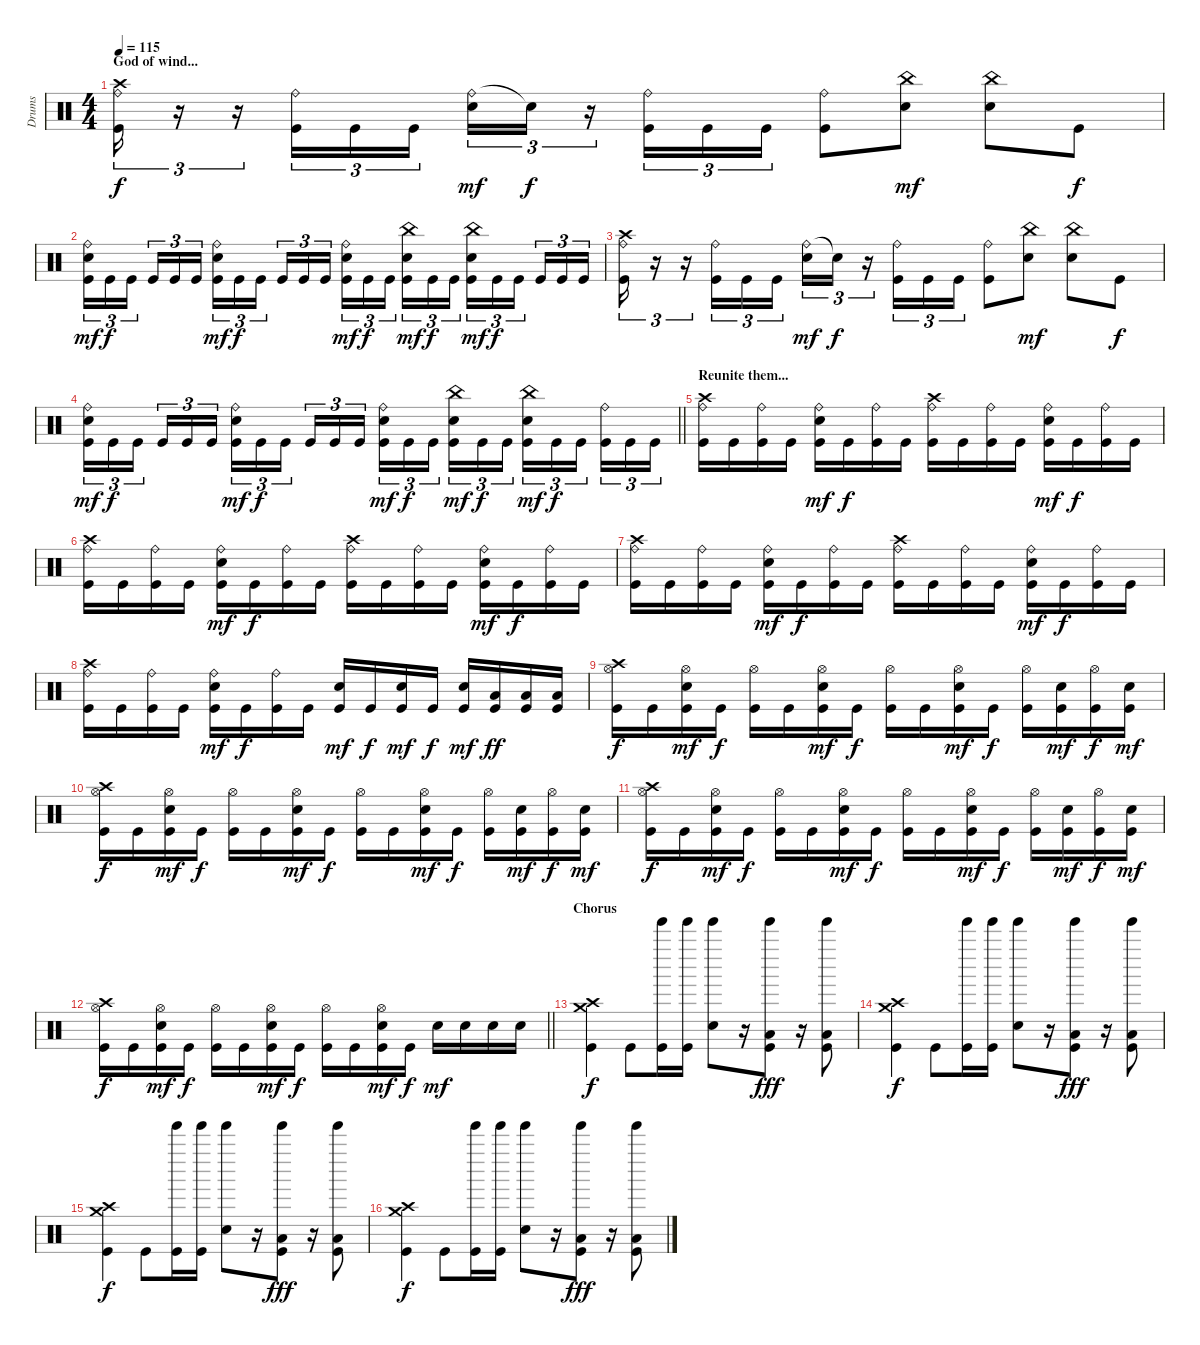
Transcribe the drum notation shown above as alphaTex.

\track ("Drums" "Drums") {instrument percussion}
\staff {score}
\articulation defaults
\ts (4 4)
\section ("" "God of wind...")
\tempo 115
\clef neutral
\ks c
("Crash high (hit)" "Ride (bell)" "Kick (hit)").16{tu (3 2) dy f} r.16{tu (3 2)} r.16{tu (3 2)} ("Ride (bell)" "Kick (hit)").16{tu (3 2)} "Kick (hit)".16{tu (3 2)} "Kick (hit)".16{tu (3 2)} ("Ride (bell)" "Snare (hit) 2").16{tu (3 2) dy mf} "Snare (hit)"{t}.16{tu (3 2) dy f} r.16{tu (3 2)} ("Ride (bell)" "Kick (hit)").16{tu (3 2)} "Kick (hit)".16{tu (3 2)} "Kick (hit)".16{tu (3 2)} ("Ride (bell)" "Kick (hit)").8 ("China (hit)" "Snare (hit) 2").8{dy mf} ("China (hit)" "Snare (hit) 2").8 "Kick (hit)".8{dy f} |
("Ride (bell)" "Snare (hit) 2" "Kick (hit)").16{tu (3 2) dy mf} "Kick (hit)".16{tu (3 2) dy f} "Kick (hit)".16{tu (3 2) beam splitsecondary} "Kick (hit)".16{tu (3 2)} "Kick (hit)".16{tu (3 2)} "Kick (hit)".16{tu (3 2)} ("Ride (bell)" "Snare (hit) 2" "Kick (hit)").16{tu (3 2) dy mf} "Kick (hit)".16{tu (3 2) dy f} "Kick (hit)".16{tu (3 2) beam splitsecondary} "Kick (hit)".16{tu (3 2)} "Kick (hit)".16{tu (3 2)} "Kick (hit)".16{tu (3 2)} ("Ride (bell)" "Snare (hit) 2" "Kick (hit)").16{tu (3 2) dy mf} "Kick (hit)".16{tu (3 2) dy f} "Kick (hit)".16{tu (3 2) beam splitsecondary} ("China (hit)" "Snare (hit) 2" "Kick (hit)").16{tu (3 2) dy mf} "Kick (hit)".16{tu (3 2) dy f} "Kick (hit)".16{tu (3 2)} ("China (hit)" "Snare (hit) 2" "Kick (hit)").16{tu (3 2) dy mf} "Kick (hit)".16{tu (3 2) dy f} "Kick (hit)".16{tu (3 2) beam splitsecondary} "Kick (hit)".16{tu (3 2)} "Kick (hit)".16{tu (3 2)} "Kick (hit)".16{tu (3 2)} |
("Crash high (hit)" "Ride (bell)" "Kick (hit)").16{tu (3 2)} r.16{tu (3 2)} r.16{tu (3 2)} ("Ride (bell)" "Kick (hit)").16{tu (3 2)} "Kick (hit)".16{tu (3 2)} "Kick (hit)".16{tu (3 2)} ("Ride (bell)" "Snare (hit) 2").16{tu (3 2) dy mf} "Snare (hit)"{t}.16{tu (3 2) dy f} r.16{tu (3 2)} ("Ride (bell)" "Kick (hit)").16{tu (3 2)} "Kick (hit)".16{tu (3 2)} "Kick (hit)".16{tu (3 2)} ("Ride (bell)" "Kick (hit)").8 ("China (hit)" "Snare (hit) 2").8{dy mf} ("China (hit)" "Snare (hit) 2").8 "Kick (hit)".8{dy f} |
\barLineRight lightlight
("Ride (bell)" "Snare (hit) 2" "Kick (hit)").16{tu (3 2) dy mf} "Kick (hit)".16{tu (3 2) dy f} "Kick (hit)".16{tu (3 2) beam splitsecondary} "Kick (hit)".16{tu (3 2)} "Kick (hit)".16{tu (3 2)} "Kick (hit)".16{tu (3 2)} ("Ride (bell)" "Snare (hit) 2" "Kick (hit)").16{tu (3 2) dy mf} "Kick (hit)".16{tu (3 2) dy f} "Kick (hit)".16{tu (3 2) beam splitsecondary} "Kick (hit)".16{tu (3 2)} "Kick (hit)".16{tu (3 2)} "Kick (hit)".16{tu (3 2)} ("Ride (bell)" "Snare (hit) 2" "Kick (hit)").16{tu (3 2) dy mf} "Kick (hit)".16{tu (3 2) dy f} "Kick (hit)".16{tu (3 2) beam splitsecondary} ("China (hit)" "Snare (hit) 2" "Kick (hit)").16{tu (3 2) dy mf} "Kick (hit)".16{tu (3 2) dy f} "Kick (hit)".16{tu (3 2)} ("China (hit)" "Snare (hit) 2" "Kick (hit)").16{tu (3 2) dy mf} "Kick (hit)".16{tu (3 2) dy f} "Kick (hit)".16{tu (3 2) beam splitsecondary} ("Ride (bell)" "Kick (hit)").16{tu (3 2)} "Kick (hit)".16{tu (3 2)} "Kick (hit)".16{tu (3 2)} |
\section ("" "Reunite them...")
("Crash high (hit)" "Ride (bell)" "Kick (hit)").16 "Kick (hit)".16 ("Ride (bell)" "Kick (hit)").16 "Kick (hit)".16 ("Ride (bell)" "Snare (hit) 2" "Kick (hit)").16{dy mf} "Kick (hit)".16{dy f} ("Ride (bell)" "Kick (hit)").16 "Kick (hit)".16 ("Crash high (hit)" "Ride (bell)" "Kick (hit)").16 "Kick (hit)".16 ("Ride (bell)" "Kick (hit)").16 "Kick (hit)".16 ("Ride (bell)" "Snare (hit) 2" "Kick (hit)").16{dy mf} "Kick (hit)".16{dy f} ("Ride (bell)" "Kick (hit)").16 "Kick (hit)".16 |
("Crash high (hit)" "Ride (bell)" "Kick (hit)").16 "Kick (hit)".16 ("Ride (bell)" "Kick (hit)").16 "Kick (hit)".16 ("Ride (bell)" "Snare (hit) 2" "Kick (hit)").16{dy mf} "Kick (hit)".16{dy f} ("Ride (bell)" "Kick (hit)").16 "Kick (hit)".16 ("Crash high (hit)" "Ride (bell)" "Kick (hit)").16 "Kick (hit)".16 ("Ride (bell)" "Kick (hit)").16 "Kick (hit)".16 ("Ride (bell)" "Snare (hit) 2" "Kick (hit)").16{dy mf} "Kick (hit)".16{dy f} ("Ride (bell)" "Kick (hit)").16 "Kick (hit)".16 |
("Crash high (hit)" "Ride (bell)" "Kick (hit)").16 "Kick (hit)".16 ("Ride (bell)" "Kick (hit)").16 "Kick (hit)".16 ("Ride (bell)" "Snare (hit) 2" "Kick (hit)").16{dy mf} "Kick (hit)".16{dy f} ("Ride (bell)" "Kick (hit)").16 "Kick (hit)".16 ("Crash high (hit)" "Ride (bell)" "Kick (hit)").16 "Kick (hit)".16 ("Ride (bell)" "Kick (hit)").16 "Kick (hit)".16 ("Ride (bell)" "Snare (hit) 2" "Kick (hit)").16{dy mf} "Kick (hit)".16{dy f} ("Ride (bell)" "Kick (hit)").16 "Kick (hit)".16 |
("Crash high (hit)" "Ride (bell)" "Kick (hit)").16 "Kick (hit)".16 ("Ride (bell)" "Kick (hit)").16 "Kick (hit)".16 ("Ride (bell)" "Snare (hit) 2" "Kick (hit)").16{dy mf} "Kick (hit)".16{dy f} ("Ride (bell)" "Kick (hit)").16 "Kick (hit)".16 ("Snare (hit) 2" "Kick (hit)").16{dy mf} "Kick (hit)".16{dy f} ("Snare (hit) 2" "Kick (hit)").16{dy mf} "Kick (hit)".16{dy f} ("Snare (hit) 2" "Kick (hit)").16{dy mf} ("Low Tom (hit)" "Kick (hit)").16{dy ff} ("Low Tom (hit)" "Kick (hit)").16 ("Low Tom (hit)" "Kick (hit)").16 |
("Crash high (hit)" "Hi-Hat (open)" "Kick (hit)").16{dy f} "Kick (hit)".16 ("Hi-Hat (open)" "Snare (hit) 2" "Kick (hit)").16{dy mf} "Kick (hit)".16{dy f} ("Hi-Hat (open)" "Kick (hit)").16 "Kick (hit)".16 ("Hi-Hat (open)" "Snare (hit) 2" "Kick (hit)").16{dy mf} "Kick (hit)".16{dy f} ("Hi-Hat (open)" "Kick (hit)").16 "Kick (hit)".16 ("Hi-Hat (open)" "Snare (hit) 2" "Kick (hit)").16{dy mf} "Kick (hit)".16{dy f} ("Hi-Hat (open)" "Kick (hit)").16 ("Snare (hit) 2" "Kick (hit)").16{dy mf} ("Hi-Hat (open)" "Kick (hit)").16{dy f} ("Snare (hit) 2" "Kick (hit)").16{dy mf} |
("Crash high (hit)" "Hi-Hat (open)" "Kick (hit)").16{dy f} "Kick (hit)".16 ("Hi-Hat (open)" "Snare (hit) 2" "Kick (hit)").16{dy mf} "Kick (hit)".16{dy f} ("Hi-Hat (open)" "Kick (hit)").16 "Kick (hit)".16 ("Hi-Hat (open)" "Snare (hit) 2" "Kick (hit)").16{dy mf} "Kick (hit)".16{dy f} ("Hi-Hat (open)" "Kick (hit)").16 "Kick (hit)".16 ("Hi-Hat (open)" "Snare (hit) 2" "Kick (hit)").16{dy mf} "Kick (hit)".16{dy f} ("Hi-Hat (open)" "Kick (hit)").16 ("Snare (hit) 2" "Kick (hit)").16{dy mf} ("Hi-Hat (open)" "Kick (hit)").16{dy f} ("Snare (hit) 2" "Kick (hit)").16{dy mf} |
("Crash high (hit)" "Hi-Hat (open)" "Kick (hit)").16{dy f} "Kick (hit)".16 ("Hi-Hat (open)" "Snare (hit) 2" "Kick (hit)").16{dy mf} "Kick (hit)".16{dy f} ("Hi-Hat (open)" "Kick (hit)").16 "Kick (hit)".16 ("Hi-Hat (open)" "Snare (hit) 2" "Kick (hit)").16{dy mf} "Kick (hit)".16{dy f} ("Hi-Hat (open)" "Kick (hit)").16 "Kick (hit)".16 ("Hi-Hat (open)" "Snare (hit) 2" "Kick (hit)").16{dy mf} "Kick (hit)".16{dy f} ("Hi-Hat (open)" "Kick (hit)").16 ("Snare (hit) 2" "Kick (hit)").16{dy mf} ("Hi-Hat (open)" "Kick (hit)").16{dy f} ("Snare (hit) 2" "Kick (hit)").16{dy mf} |
\barLineRight lightlight
("Crash high (hit)" "Hi-Hat (open)" "Kick (hit)").16{dy f} "Kick (hit)".16 ("Hi-Hat (open)" "Snare (hit) 2" "Kick (hit)").16{dy mf} "Kick (hit)".16{dy f} ("Hi-Hat (open)" "Kick (hit)").16 "Kick (hit)".16 ("Hi-Hat (open)" "Snare (hit) 2" "Kick (hit)").16{dy mf} "Kick (hit)".16{dy f} ("Hi-Hat (open)" "Kick (hit)").16 "Kick (hit)".16 ("Hi-Hat (open)" "Snare (hit) 2" "Kick (hit)").16{dy mf} "Kick (hit)".16{dy f} "Snare (hit) 2".16{dy mf} "Snare (hit) 2".16 "Snare (hit) 2".16 "Snare (hit) 2".16 |
\section ("" "Chorus")
("Crash high (hit)" "Crash medium (hit)" "Kick (hit)").4{dy f} "Kick (hit)".8 ("Tinkle Bell (hit)" "Kick (hit)").16 ("Tinkle Bell (hit)" "Kick (hit)").16 ("Tinkle Bell (hit)" "Snare (hit) 2").8 r.16 ("Tinkle Bell (hit)" "Low Tom (hit)" "Kick (hit)").8{dy fff} r.16 ("Tinkle Bell (hit)" "Low Tom (hit)" "Kick (hit)").8 |
("Crash high (hit)" "Crash medium (hit)" "Kick (hit)").4{dy f} "Kick (hit)".8 ("Tinkle Bell (hit)" "Kick (hit)").16 ("Tinkle Bell (hit)" "Kick (hit)").16 ("Tinkle Bell (hit)" "Snare (hit) 2").8 r.16 ("Tinkle Bell (hit)" "Low Tom (hit)" "Kick (hit)").8{dy fff} r.16 ("Tinkle Bell (hit)" "Low Tom (hit)" "Kick (hit)").8 |
("Crash high (hit)" "Crash medium (hit)" "Kick (hit)").4{dy f} "Kick (hit)".8 ("Tinkle Bell (hit)" "Kick (hit)").16 ("Tinkle Bell (hit)" "Kick (hit)").16 ("Tinkle Bell (hit)" "Snare (hit) 2").8 r.16 ("Tinkle Bell (hit)" "Low Tom (hit)" "Kick (hit)").8{dy fff} r.16 ("Tinkle Bell (hit)" "Low Tom (hit)" "Kick (hit)").8 |
("Crash high (hit)" "Crash medium (hit)" "Kick (hit)").4{dy f} "Kick (hit)".8 ("Tinkle Bell (hit)" "Kick (hit)").16 ("Tinkle Bell (hit)" "Kick (hit)").16 ("Tinkle Bell (hit)" "Snare (hit) 2").8 r.16 ("Tinkle Bell (hit)" "Low Tom (hit)" "Kick (hit)").8{dy fff} r.16 ("Tinkle Bell (hit)" "Low Tom (hit)" "Kick (hit)").8
